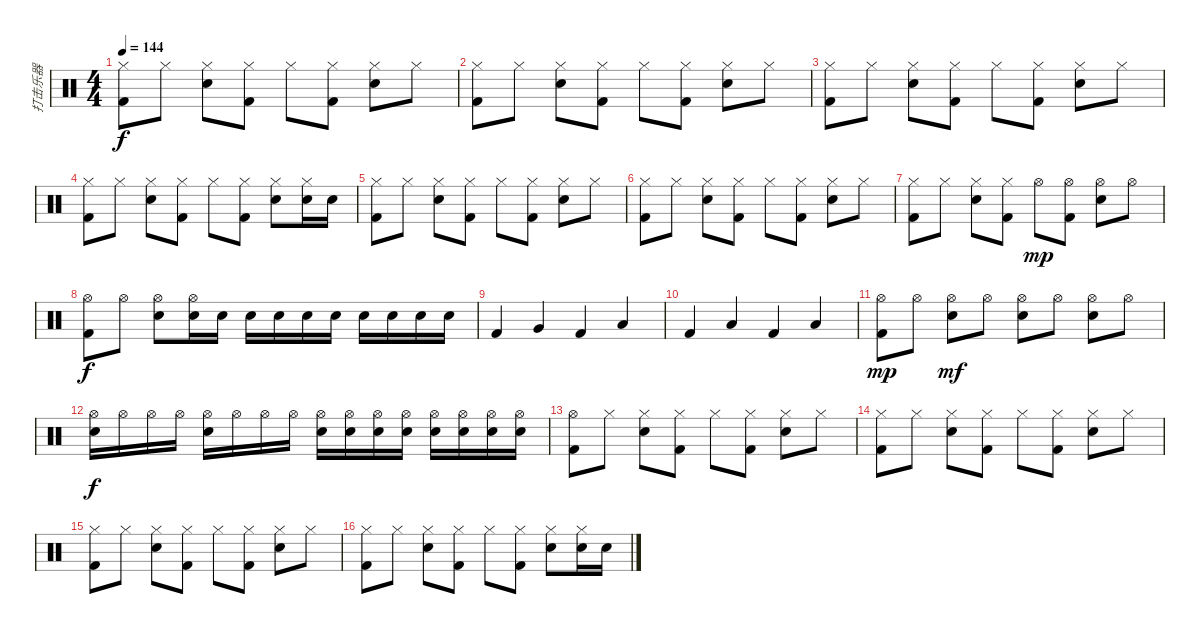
\track ("打击乐器" "打击乐器") {instrument percussion}
\staff {score}
\articulation defaults
\ts (4 4)
\tempo 144
\clef neutral
\ks c
("Hi-Hat (closed)" "Kick (hit) 2").8{dy f} "Hi-Hat (closed)".8 ("Hi-Hat (closed)" "Electric Snare (hit)").8 ("Hi-Hat (closed)" "Kick (hit) 2").8 "Hi-Hat (closed)".8 ("Hi-Hat (closed)" "Kick (hit) 2").8 ("Hi-Hat (closed)" "Electric Snare (hit)").8 "Hi-Hat (closed)".8 |
("Hi-Hat (closed)" "Kick (hit) 2").8 "Hi-Hat (closed)".8 ("Hi-Hat (closed)" "Electric Snare (hit)").8 ("Hi-Hat (closed)" "Kick (hit) 2").8 "Hi-Hat (closed)".8 ("Hi-Hat (closed)" "Kick (hit) 2").8 ("Hi-Hat (closed)" "Electric Snare (hit)").8 "Hi-Hat (closed)".8 |
("Hi-Hat (closed)" "Kick (hit) 2").8 "Hi-Hat (closed)".8 ("Hi-Hat (closed)" "Electric Snare (hit)").8 ("Hi-Hat (closed)" "Kick (hit) 2").8 "Hi-Hat (closed)".8 ("Hi-Hat (closed)" "Kick (hit) 2").8 ("Hi-Hat (closed)" "Electric Snare (hit)").8 "Hi-Hat (closed)".8 |
("Hi-Hat (closed)" "Kick (hit) 2").8 "Hi-Hat (closed)".8 ("Hi-Hat (closed)" "Electric Snare (hit)").8 ("Hi-Hat (closed)" "Kick (hit) 2").8 "Hi-Hat (closed)".8 ("Hi-Hat (closed)" "Kick (hit) 2").8 ("Hi-Hat (closed)" "Electric Snare (hit)").8 ("Hi-Hat (closed)" "Electric Snare (hit)").16 "Electric Snare (hit)".16 |
("Hi-Hat (closed)" "Kick (hit) 2").8 "Hi-Hat (closed)".8 ("Hi-Hat (closed)" "Electric Snare (hit)").8 ("Hi-Hat (closed)" "Kick (hit) 2").8 "Hi-Hat (closed)".8 ("Hi-Hat (closed)" "Kick (hit) 2").8 ("Hi-Hat (closed)" "Electric Snare (hit)").8 "Hi-Hat (closed)".8 |
("Hi-Hat (closed)" "Kick (hit) 2").8 "Hi-Hat (closed)".8 ("Hi-Hat (closed)" "Electric Snare (hit)").8 ("Hi-Hat (closed)" "Kick (hit) 2").8 "Hi-Hat (closed)".8 ("Hi-Hat (closed)" "Kick (hit) 2").8 ("Hi-Hat (closed)" "Electric Snare (hit)").8 "Hi-Hat (closed)".8 |
("Hi-Hat (closed)" "Kick (hit) 2").8 "Hi-Hat (closed)".8 ("Hi-Hat (closed)" "Electric Snare (hit)").8 ("Hi-Hat (closed)" "Kick (hit) 2").8 "Hi-Hat (open)".8{dy mp} ("Hi-Hat (open)" "Kick (hit) 2").8 ("Hi-Hat (open)" "Electric Snare (hit)").8 "Hi-Hat (open)".8 |
("Hi-Hat (open)" "Kick (hit) 2").8{dy f} "Hi-Hat (open)".8 ("Hi-Hat (open)" "Electric Snare (hit)").8 ("Hi-Hat (open)" "Electric Snare (hit)").16 "Electric Snare (hit)".16 "Electric Snare (hit)".16 "Electric Snare (hit)".16 "Electric Snare (hit)".16 "Electric Snare (hit)".16 "Electric Snare (hit)".16 "Electric Snare (hit)".16 "Electric Snare (hit)".16 "Electric Snare (hit)".16 |
"Kick (hit) 2".4 "Very Low Tom (hit)".4 "Kick (hit) 2".4 "Low Floor Tom (hit)".4 |
"Kick (hit) 2".4 "Low Floor Tom (hit)".4 "Kick (hit) 2".4 "Low Floor Tom (hit)".4 |
("Hi-Hat (open)" "Kick (hit) 2").8{dy mp} "Hi-Hat (open)".8 ("Hi-Hat (open)" "Electric Snare (hit)").8{dy mf} "Hi-Hat (open)".8 ("Hi-Hat (open)" "Electric Snare (hit)").8 "Hi-Hat (open)".8 ("Hi-Hat (open)" "Electric Snare (hit)").8 "Hi-Hat (open)".8 |
("Hi-Hat (open)" "Electric Snare (hit)").16{dy f} "Hi-Hat (open)".16 "Hi-Hat (open)".16 "Hi-Hat (open)".16 ("Hi-Hat (open)" "Electric Snare (hit)").16 "Hi-Hat (open)".16 "Hi-Hat (open)".16 "Hi-Hat (open)".16 ("Hi-Hat (open)" "Electric Snare (hit)").16 ("Hi-Hat (open)" "Electric Snare (hit)").16 ("Hi-Hat (open)" "Electric Snare (hit)").16 ("Hi-Hat (open)" "Electric Snare (hit)").16 ("Hi-Hat (open)" "Electric Snare (hit)").16 ("Hi-Hat (open)" "Electric Snare (hit)").16 ("Hi-Hat (open)" "Electric Snare (hit)").16 ("Hi-Hat (open)" "Electric Snare (hit)").16 |
("Hi-Hat (open)" "Kick (hit) 2").8 "Hi-Hat (closed)".8 ("Hi-Hat (closed)" "Electric Snare (hit)").8 ("Hi-Hat (closed)" "Kick (hit) 2").8 "Hi-Hat (closed)".8 ("Hi-Hat (closed)" "Kick (hit) 2").8 ("Hi-Hat (closed)" "Electric Snare (hit)").8 "Hi-Hat (closed)".8 |
("Hi-Hat (closed)" "Kick (hit) 2").8 "Hi-Hat (closed)".8 ("Hi-Hat (closed)" "Electric Snare (hit)").8 ("Hi-Hat (closed)" "Kick (hit) 2").8 "Hi-Hat (closed)".8 ("Hi-Hat (closed)" "Kick (hit) 2").8 ("Hi-Hat (closed)" "Electric Snare (hit)").8 "Hi-Hat (closed)".8 |
("Hi-Hat (closed)" "Kick (hit) 2").8 "Hi-Hat (closed)".8 ("Hi-Hat (closed)" "Electric Snare (hit)").8 ("Hi-Hat (closed)" "Kick (hit) 2").8 "Hi-Hat (closed)".8 ("Hi-Hat (closed)" "Kick (hit) 2").8 ("Hi-Hat (closed)" "Electric Snare (hit)").8 "Hi-Hat (closed)".8 |
("Hi-Hat (closed)" "Kick (hit) 2").8 "Hi-Hat (closed)".8 ("Hi-Hat (closed)" "Electric Snare (hit)").8 ("Hi-Hat (closed)" "Kick (hit) 2").8 "Hi-Hat (closed)".8 ("Hi-Hat (closed)" "Kick (hit) 2").8 ("Hi-Hat (closed)" "Electric Snare (hit)").8 ("Hi-Hat (closed)" "Electric Snare (hit)").16 "Electric Snare (hit)".16
